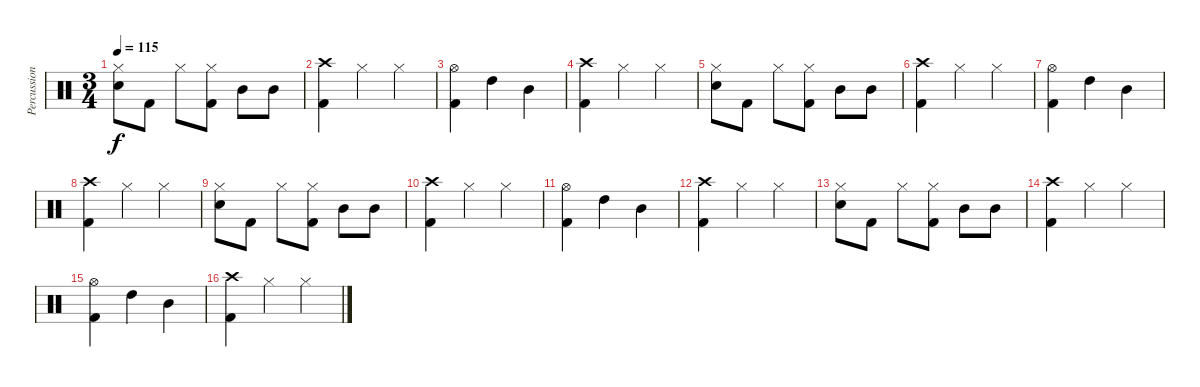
\track ("Percussioni" "Percussion") {instrument percussion}
\staff {score}
\articulation defaults
\ts (3 4)
\tempo 115
\clef neutral
\ks c
("Hi-Hat (closed)" "Snare (hit) 2").8{dy f} "Kick (hit) 2".8 "Hi-Hat (closed)".8 ("Hi-Hat (closed)" "Kick (hit) 2").8 "Mid Tom (hit)".8 "Mid Tom (hit)".8 |
("Crash high (hit)" "Kick (hit) 2").4 "Hi-Hat (closed)".4 "Hi-Hat (closed)".4 |
("Hi-Hat (open)" "Kick (hit) 2").4 "High Tom (hit)".4 "Mid Tom (hit)".4 |
("Crash high (hit)" "Kick (hit) 2").4 "Hi-Hat (closed)".4 "Hi-Hat (closed)".4 |
("Hi-Hat (closed)" "Snare (hit) 2").8 "Kick (hit) 2".8 "Hi-Hat (closed)".8 ("Hi-Hat (closed)" "Kick (hit) 2").8 "Mid Tom (hit)".8 "Mid Tom (hit)".8 |
("Crash high (hit)" "Kick (hit) 2").4 "Hi-Hat (closed)".4 "Hi-Hat (closed)".4 |
("Hi-Hat (open)" "Kick (hit) 2").4 "High Tom (hit)".4 "Mid Tom (hit)".4 |
("Crash high (hit)" "Kick (hit) 2").4 "Hi-Hat (closed)".4 "Hi-Hat (closed)".4 |
("Hi-Hat (closed)" "Snare (hit) 2").8 "Kick (hit) 2".8 "Hi-Hat (closed)".8 ("Hi-Hat (closed)" "Kick (hit) 2").8 "Mid Tom (hit)".8 "Mid Tom (hit)".8 |
("Crash high (hit)" "Kick (hit) 2").4 "Hi-Hat (closed)".4 "Hi-Hat (closed)".4 |
("Hi-Hat (open)" "Kick (hit) 2").4 "High Tom (hit)".4 "Mid Tom (hit)".4 |
("Crash high (hit)" "Kick (hit) 2").4 "Hi-Hat (closed)".4 "Hi-Hat (closed)".4 |
("Hi-Hat (closed)" "Snare (hit) 2").8 "Kick (hit) 2".8 "Hi-Hat (closed)".8 ("Hi-Hat (closed)" "Kick (hit) 2").8 "Mid Tom (hit)".8 "Mid Tom (hit)".8 |
("Crash high (hit)" "Kick (hit) 2").4 "Hi-Hat (closed)".4 "Hi-Hat (closed)".4 |
("Hi-Hat (open)" "Kick (hit) 2").4 "High Tom (hit)".4 "Mid Tom (hit)".4 |
("Crash high (hit)" "Kick (hit) 2").4 "Hi-Hat (closed)".4 "Hi-Hat (closed)".4
